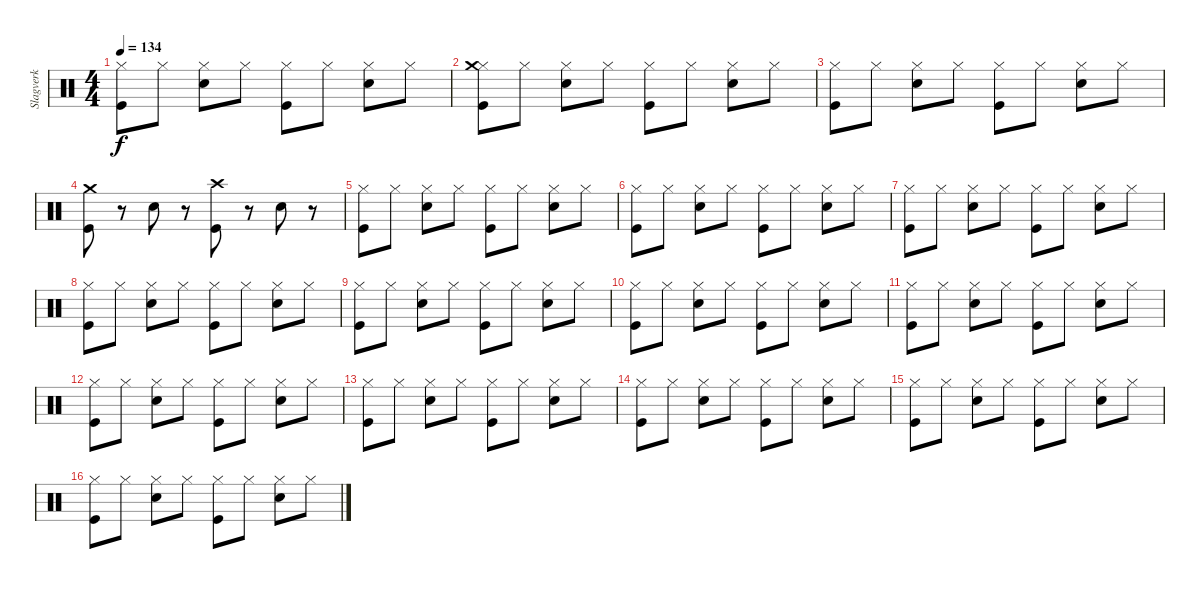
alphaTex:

\track ("Slagverk" "Slagverk") {instrument percussion}
\staff
\articulation defaults
\ts (4 4)
\tempo 134
\clef neutral
\ks c
("Hi-Hat (closed)" "Kick (hit)").8{dy f} "Hi-Hat (closed)".8 ("Hi-Hat (closed)" "Electric Snare (hit)").8 "Hi-Hat (closed)".8 ("Hi-Hat (closed)" "Kick (hit)").8 "Hi-Hat (closed)".8 ("Hi-Hat (closed)" "Electric Snare (hit)").8 "Hi-Hat (closed)".8 |
("Hi-Hat (closed)" "Crash medium (hit)" "Kick (hit)").8 "Hi-Hat (closed)".8 ("Hi-Hat (closed)" "Electric Snare (hit)").8 "Hi-Hat (closed)".8 ("Hi-Hat (closed)" "Kick (hit)").8 "Hi-Hat (closed)".8 ("Hi-Hat (closed)" "Electric Snare (hit)").8 "Hi-Hat (closed)".8 |
("Hi-Hat (closed)" "Kick (hit)").8 "Hi-Hat (closed)".8 ("Hi-Hat (closed)" "Electric Snare (hit)").8 "Hi-Hat (closed)".8 ("Hi-Hat (closed)" "Kick (hit)").8 "Hi-Hat (closed)".8 ("Hi-Hat (closed)" "Electric Snare (hit)").8 "Hi-Hat (closed)".8 |
("Crash medium (hit)" "Kick (hit)").8 r.8 "Electric Snare (hit)".8 r.8 ("Crash high (hit)" "Kick (hit)").8 r.8 "Electric Snare (hit)".8 r.8 |
("Hi-Hat (closed)" "Kick (hit)").8 "Hi-Hat (closed)".8 ("Hi-Hat (closed)" "Electric Snare (hit)").8 "Hi-Hat (closed)".8 ("Hi-Hat (closed)" "Kick (hit)").8 "Hi-Hat (closed)".8 ("Hi-Hat (closed)" "Electric Snare (hit)").8 "Hi-Hat (closed)".8 |
("Hi-Hat (closed)" "Kick (hit)").8 "Hi-Hat (closed)".8 ("Hi-Hat (closed)" "Electric Snare (hit)").8 "Hi-Hat (closed)".8 ("Hi-Hat (closed)" "Kick (hit)").8 "Hi-Hat (closed)".8 ("Hi-Hat (closed)" "Electric Snare (hit)").8 "Hi-Hat (closed)".8 |
("Hi-Hat (closed)" "Kick (hit)").8 "Hi-Hat (closed)".8 ("Hi-Hat (closed)" "Electric Snare (hit)").8 "Hi-Hat (closed)".8 ("Hi-Hat (closed)" "Kick (hit)").8 "Hi-Hat (closed)".8 ("Hi-Hat (closed)" "Electric Snare (hit)").8 "Hi-Hat (closed)".8 |
("Hi-Hat (closed)" "Kick (hit)").8 "Hi-Hat (closed)".8 ("Hi-Hat (closed)" "Electric Snare (hit)").8 "Hi-Hat (closed)".8 ("Hi-Hat (closed)" "Kick (hit)").8 "Hi-Hat (closed)".8 ("Hi-Hat (closed)" "Electric Snare (hit)").8 "Hi-Hat (closed)".8 |
("Hi-Hat (closed)" "Kick (hit)").8 "Hi-Hat (closed)".8 ("Hi-Hat (closed)" "Electric Snare (hit)").8 "Hi-Hat (closed)".8 ("Hi-Hat (closed)" "Kick (hit)").8 "Hi-Hat (closed)".8 ("Hi-Hat (closed)" "Electric Snare (hit)").8 "Hi-Hat (closed)".8 |
("Hi-Hat (closed)" "Kick (hit)").8 "Hi-Hat (closed)".8 ("Hi-Hat (closed)" "Electric Snare (hit)").8 "Hi-Hat (closed)".8 ("Hi-Hat (closed)" "Kick (hit)").8 "Hi-Hat (closed)".8 ("Hi-Hat (closed)" "Electric Snare (hit)").8 "Hi-Hat (closed)".8 |
("Hi-Hat (closed)" "Kick (hit)").8 "Hi-Hat (closed)".8 ("Hi-Hat (closed)" "Electric Snare (hit)").8 "Hi-Hat (closed)".8 ("Hi-Hat (closed)" "Kick (hit)").8 "Hi-Hat (closed)".8 ("Hi-Hat (closed)" "Electric Snare (hit)").8 "Hi-Hat (closed)".8 |
("Hi-Hat (closed)" "Kick (hit)").8 "Hi-Hat (closed)".8 ("Hi-Hat (closed)" "Electric Snare (hit)").8 "Hi-Hat (closed)".8 ("Hi-Hat (closed)" "Kick (hit)").8 "Hi-Hat (closed)".8 ("Hi-Hat (closed)" "Electric Snare (hit)").8 "Hi-Hat (closed)".8 |
("Hi-Hat (closed)" "Kick (hit)").8 "Hi-Hat (closed)".8 ("Hi-Hat (closed)" "Electric Snare (hit)").8 "Hi-Hat (closed)".8 ("Hi-Hat (closed)" "Kick (hit)").8 "Hi-Hat (closed)".8 ("Hi-Hat (closed)" "Electric Snare (hit)").8 "Hi-Hat (closed)".8 |
("Hi-Hat (closed)" "Kick (hit)").8 "Hi-Hat (closed)".8 ("Hi-Hat (closed)" "Electric Snare (hit)").8 "Hi-Hat (closed)".8 ("Hi-Hat (closed)" "Kick (hit)").8 "Hi-Hat (closed)".8 ("Hi-Hat (closed)" "Electric Snare (hit)").8 "Hi-Hat (closed)".8 |
("Hi-Hat (closed)" "Kick (hit)").8 "Hi-Hat (closed)".8 ("Hi-Hat (closed)" "Electric Snare (hit)").8 "Hi-Hat (closed)".8 ("Hi-Hat (closed)" "Kick (hit)").8 "Hi-Hat (closed)".8 ("Hi-Hat (closed)" "Electric Snare (hit)").8 "Hi-Hat (closed)".8 |
("Hi-Hat (closed)" "Kick (hit)").8 "Hi-Hat (closed)".8 ("Hi-Hat (closed)" "Electric Snare (hit)").8 "Hi-Hat (closed)".8 ("Hi-Hat (closed)" "Kick (hit)").8 "Hi-Hat (closed)".8 ("Hi-Hat (closed)" "Electric Snare (hit)").8 "Hi-Hat (closed)".8
